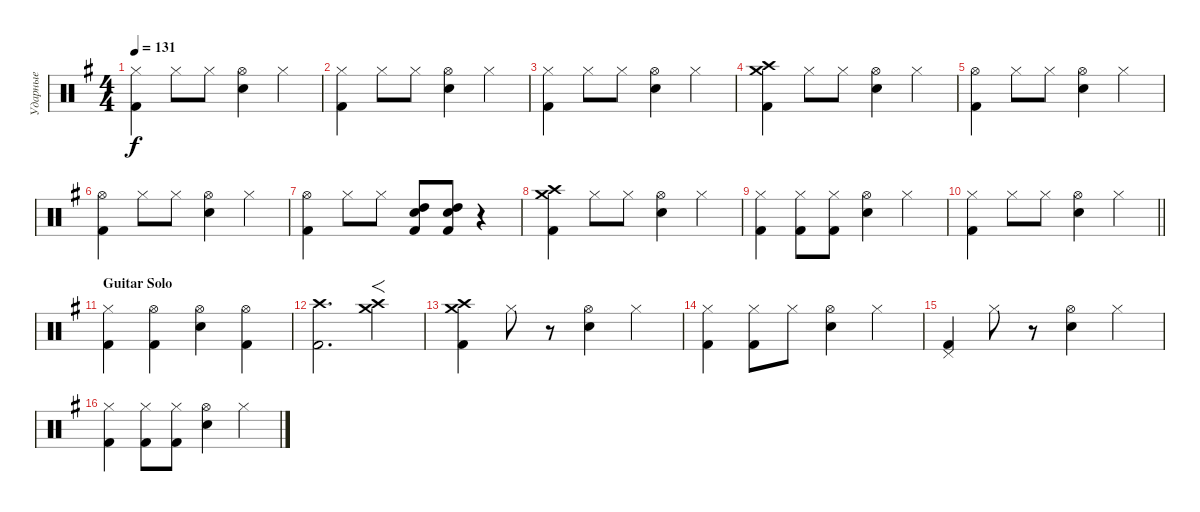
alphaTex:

\track ("Ударные" "Ударные") {instrument percussion}
\staff {score}
\articulation defaults
\ts (4 4)
\tempo 131
\clef neutral
\ks eminor
("Hi-Hat (closed)" "Kick (hit) 2").4{dy f} "Hi-Hat (closed)".8 "Hi-Hat (closed)".8 ("Hi-Hat (open)" "Snare (hit) 2").4 "Hi-Hat (closed)".4 |
("Hi-Hat (closed)" "Kick (hit) 2").4 "Hi-Hat (closed)".8 "Hi-Hat (closed)".8 ("Hi-Hat (open)" "Snare (hit) 2").4 "Hi-Hat (closed)".4 |
("Hi-Hat (closed)" "Kick (hit) 2").4 "Hi-Hat (closed)".8 "Hi-Hat (closed)".8 ("Hi-Hat (open)" "Snare (hit) 2").4 "Hi-Hat (closed)".4 |
("Crash medium (hit)" "Crash high (hit)" "Kick (hit) 2").4 "Hi-Hat (closed)".8 "Hi-Hat (closed)".8 ("Hi-Hat (open)" "Snare (hit) 2").4 "Hi-Hat (closed)".4 |
("Hi-Hat (open)" "Kick (hit) 2").4 "Hi-Hat (closed)".8 "Hi-Hat (closed)".8 ("Hi-Hat (open)" "Snare (hit) 2").4 "Hi-Hat (closed)".4 |
("Hi-Hat (open)" "Kick (hit) 2").4 "Hi-Hat (closed)".8 "Hi-Hat (closed)".8 ("Hi-Hat (open)" "Snare (hit) 2").4 "Hi-Hat (closed)".4 |
("Hi-Hat (open)" "Kick (hit) 2").4 "Hi-Hat (closed)".8 "Hi-Hat (closed)".8 ("High Tom (hit)" "Kick (hit) 2" "Electric Snare (hit)").8 ("High Tom (hit)" "Kick (hit) 2" "Electric Snare (hit)").8 r.4 |
("Crash medium (hit)" "Crash high (hit)" "Kick (hit) 2").4 "Hi-Hat (closed)".8 "Hi-Hat (closed)".8 ("Hi-Hat (open)" "Snare (hit) 2").4 "Hi-Hat (closed)".4 |
("Hi-Hat (closed)" "Kick (hit) 2").4 ("Hi-Hat (closed)" "Kick (hit) 2").8 ("Hi-Hat (closed)" "Kick (hit) 2").8 ("Hi-Hat (open)" "Snare (hit) 2").4 "Hi-Hat (closed)".4 |
\barLineRight lightlight
("Hi-Hat (closed)" "Kick (hit) 2").4 "Hi-Hat (closed)".8 "Hi-Hat (closed)".8 ("Hi-Hat (open)" "Snare (hit) 2").4 "Hi-Hat (closed)".4 |
\section ("" "Guitar Solo")
("Hi-Hat (closed)" "Kick (hit) 2").4 ("Hi-Hat (open)" "Kick (hit) 2").4 ("Hi-Hat (open)" "Snare (hit) 2").4 ("Hi-Hat (open)" "Kick (hit) 2").4 |
("Crash high (hit)" "Kick (hit) 2").2{d} ("Crash high (hit)" "Crash medium (hit)").4{f} |
("Crash medium (hit)" "Crash high (hit)" "Kick (hit) 2").4 "Hi-Hat (closed)".8 r.8 ("Hi-Hat (open)" "Snare (hit) 2").4 "Hi-Hat (closed)".4 |
("Hi-Hat (closed)" "Kick (hit) 2").4 ("Hi-Hat (closed)" "Kick (hit) 2").8 "Hi-Hat (closed)".8 ("Hi-Hat (open)" "Snare (hit) 2").4 "Hi-Hat (closed)".4 |
("Pedal Hi-Hat (hit)" "Kick (hit) 2").4 "Hi-Hat (closed)".8 r.8 ("Hi-Hat (open)" "Snare (hit) 2").4 "Hi-Hat (closed)".4 |
("Hi-Hat (closed)" "Kick (hit) 2").4 ("Hi-Hat (closed)" "Kick (hit) 2").8 ("Hi-Hat (closed)" "Kick (hit) 2").8 ("Hi-Hat (open)" "Snare (hit) 2").4 "Hi-Hat (closed)".4
